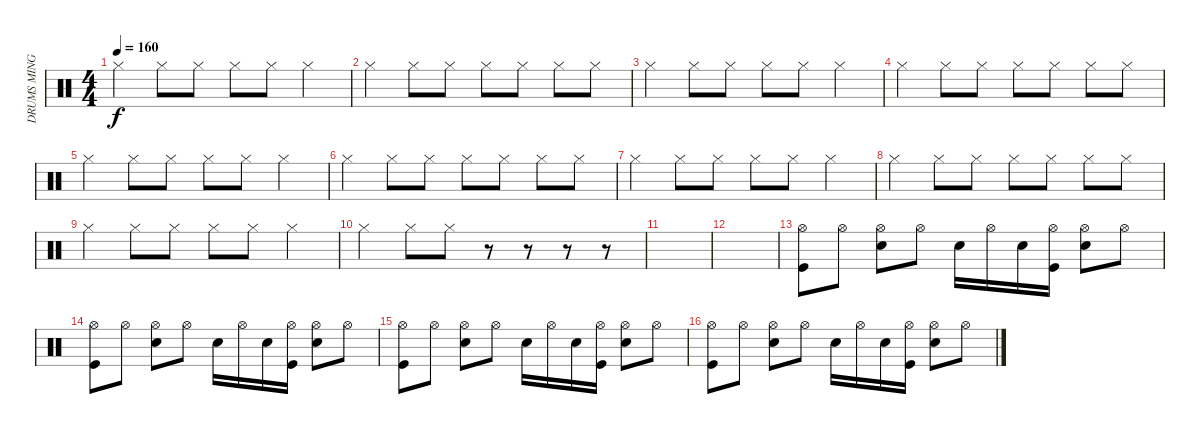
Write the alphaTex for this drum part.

\track ("DRUMS MING" "DRUMS MING") {instrument percussion}
\staff {score}
\articulation defaults
\ts (4 4)
\tempo 160
\clef neutral
\ks c "Hi-Hat (closed)".4{dy f} "Hi-Hat (closed)".8 "Hi-Hat (closed)".8 "Hi-Hat (closed)".8 "Hi-Hat (closed)".8 "Hi-Hat (closed)".4
|
"Hi-Hat (closed)".4 "Hi-Hat (closed)".8 "Hi-Hat (closed)".8 "Hi-Hat (closed)".8 "Hi-Hat (closed)".8 "Hi-Hat (closed)".8 "Hi-Hat (closed)".8 |
"Hi-Hat (closed)".4 "Hi-Hat (closed)".8 "Hi-Hat (closed)".8 "Hi-Hat (closed)".8 "Hi-Hat (closed)".8 "Hi-Hat (closed)".4 |
"Hi-Hat (closed)".4 "Hi-Hat (closed)".8 "Hi-Hat (closed)".8 "Hi-Hat (closed)".8 "Hi-Hat (closed)".8 "Hi-Hat (closed)".8 "Hi-Hat (closed)".8 |
"Hi-Hat (closed)".4 "Hi-Hat (closed)".8 "Hi-Hat (closed)".8 "Hi-Hat (closed)".8 "Hi-Hat (closed)".8 "Hi-Hat (closed)".4 |
"Hi-Hat (closed)".4 "Hi-Hat (closed)".8 "Hi-Hat (closed)".8 "Hi-Hat (closed)".8 "Hi-Hat (closed)".8 "Hi-Hat (closed)".8 "Hi-Hat (closed)".8 |
"Hi-Hat (closed)".4 "Hi-Hat (closed)".8 "Hi-Hat (closed)".8 "Hi-Hat (closed)".8 "Hi-Hat (closed)".8 "Hi-Hat (closed)".4 |
"Hi-Hat (closed)".4 "Hi-Hat (closed)".8 "Hi-Hat (closed)".8 "Hi-Hat (closed)".8 "Hi-Hat (closed)".8 "Hi-Hat (closed)".8 "Hi-Hat (closed)".8 |
"Hi-Hat (closed)".4 "Hi-Hat (closed)".8 "Hi-Hat (closed)".8 "Hi-Hat (closed)".8 "Hi-Hat (closed)".8 "Hi-Hat (closed)".4 |
"Hi-Hat (closed)".4 "Hi-Hat (closed)".8 "Hi-Hat (closed)".8 r.8 r.8 r.8 r.8 |
|
|
("Hi-Hat (open)" "Kick (hit)").8 "Hi-Hat (open)".8 ("Hi-Hat (open)" "Snare (hit) 2").8 "Hi-Hat (open)".8 "Snare (hit) 2".16 "Hi-Hat (open)".16 "Snare (hit) 2".16 ("Hi-Hat (open)" "Kick (hit)").16 ("Hi-Hat (open)" "Snare (hit) 2").8 "Hi-Hat (open)".8 |
("Hi-Hat (open)" "Kick (hit)").8 "Hi-Hat (open)".8 ("Hi-Hat (open)" "Snare (hit) 2").8 "Hi-Hat (open)".8 "Snare (hit) 2".16 "Hi-Hat (open)".16 "Snare (hit) 2".16 ("Hi-Hat (open)" "Kick (hit)").16 ("Hi-Hat (open)" "Snare (hit) 2").8 "Hi-Hat (open)".8 |
("Hi-Hat (open)" "Kick (hit)").8 "Hi-Hat (open)".8 ("Hi-Hat (open)" "Snare (hit) 2").8 "Hi-Hat (open)".8 "Snare (hit) 2".16 "Hi-Hat (open)".16 "Snare (hit) 2".16 ("Hi-Hat (open)" "Kick (hit)").16 ("Hi-Hat (open)" "Snare (hit) 2").8 "Hi-Hat (open)".8 |
("Hi-Hat (open)" "Kick (hit)").8 "Hi-Hat (open)".8 ("Hi-Hat (open)" "Snare (hit) 2").8 "Hi-Hat (open)".8 "Snare (hit) 2".16 "Hi-Hat (open)".16 "Snare (hit) 2".16 ("Hi-Hat (open)" "Kick (hit)").16 ("Hi-Hat (open)" "Snare (hit) 2").8 "Hi-Hat (open)".8
